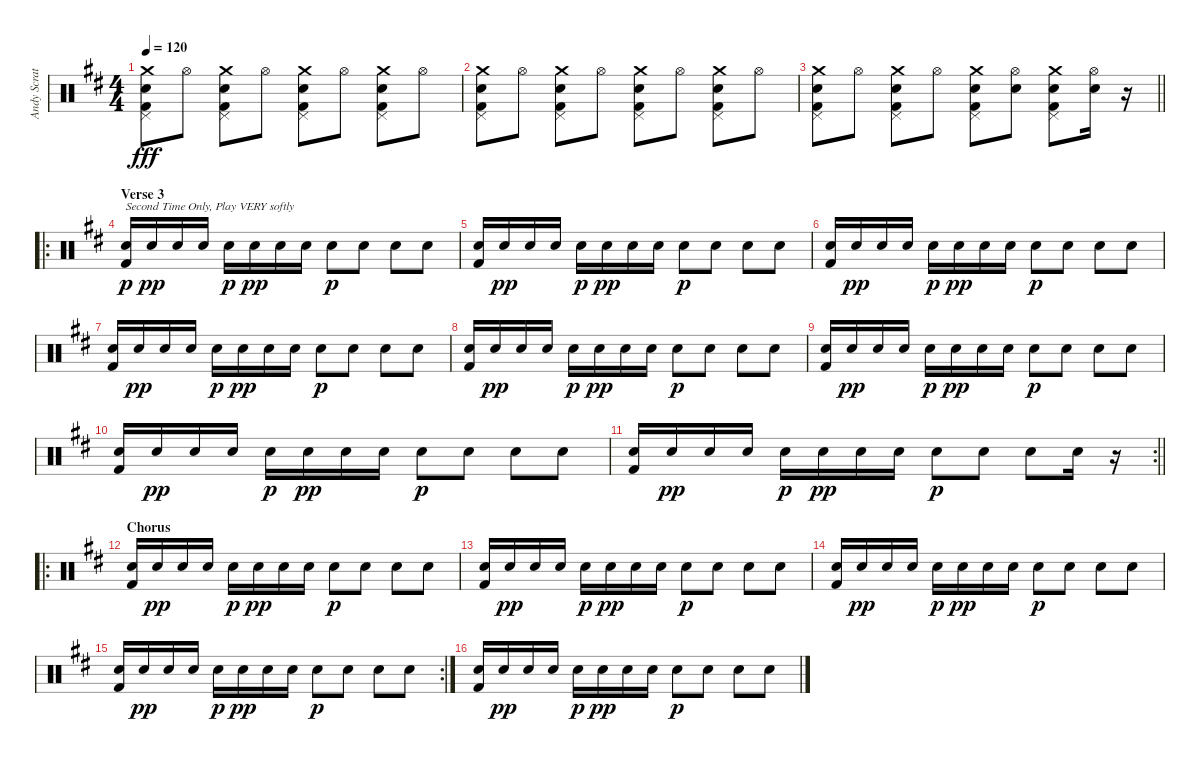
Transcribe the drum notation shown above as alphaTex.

\track ("Andy Scratchen (Drums)" "Andy Scrat") {instrument percussion}
\staff {score}
\articulation defaults
\ts (4 4)
\tempo 120
\clef neutral
\ks bminor
("Crash medium (hit)" "Pedal Hi-Hat (hit)" "Snare (hit) 2" "Kick (hit) 2").8{dy fff} "Hi-Hat (open)".8 ("Crash medium (hit)" "Pedal Hi-Hat (hit)" "Snare (hit) 2" "Kick (hit) 2").8 "Hi-Hat (open)".8 ("Crash medium (hit)" "Pedal Hi-Hat (hit)" "Snare (hit) 2" "Kick (hit) 2").8 "Hi-Hat (open)".8 ("Crash medium (hit)" "Pedal Hi-Hat (hit)" "Snare (hit) 2" "Kick (hit) 2").8 "Hi-Hat (open)".8 |
("Crash medium (hit)" "Pedal Hi-Hat (hit)" "Snare (hit) 2" "Kick (hit) 2").8 "Hi-Hat (open)".8 ("Crash medium (hit)" "Pedal Hi-Hat (hit)" "Snare (hit) 2" "Kick (hit) 2").8 "Hi-Hat (open)".8 ("Crash medium (hit)" "Pedal Hi-Hat (hit)" "Snare (hit) 2" "Kick (hit) 2").8 "Hi-Hat (open)".8 ("Crash medium (hit)" "Pedal Hi-Hat (hit)" "Snare (hit) 2" "Kick (hit) 2").8 "Hi-Hat (open)".8 |
\barLineRight lightlight
("Crash medium (hit)" "Pedal Hi-Hat (hit)" "Snare (hit) 2" "Kick (hit) 2").8 "Hi-Hat (open)".8 ("Crash medium (hit)" "Pedal Hi-Hat (hit)" "Snare (hit) 2" "Kick (hit) 2").8 "Hi-Hat (open)".8 ("Crash medium (hit)" "Pedal Hi-Hat (hit)" "Snare (hit) 2" "Kick (hit) 2").8 ("Hi-Hat (open)" "Snare (hit) 2").8 ("Crash medium (hit)" "Pedal Hi-Hat (hit)" "Snare (hit) 2" "Kick (hit) 2").8 ("Hi-Hat (open)" "Snare (hit) 2").16 r.16{volume 0} |
\ro
\section ("" "Verse 3")
("Snare (hit) 2" "Kick (hit) 2").16{txt "Second Time Only, Play VERY softly" dy p} "Snare (hit) 2".16{dy pp} "Snare (hit) 2".16 "Snare (hit) 2".16 "Snare (hit) 2".16{dy p} "Snare (hit) 2".16{dy pp} "Snare (hit) 2".16 "Snare (hit) 2".16 "Snare (hit) 2".8{dy p} "Snare (hit) 2".8 "Snare (hit) 2".8 "Snare (hit) 2".8 |
("Snare (hit) 2" "Kick (hit) 2").16 "Snare (hit) 2".16{dy pp} "Snare (hit) 2".16 "Snare (hit) 2".16 "Snare (hit) 2".16{dy p} "Snare (hit) 2".16{dy pp} "Snare (hit) 2".16 "Snare (hit) 2".16 "Snare (hit) 2".8{dy p} "Snare (hit) 2".8 "Snare (hit) 2".8 "Snare (hit) 2".8 |
("Snare (hit) 2" "Kick (hit) 2").16 "Snare (hit) 2".16{dy pp} "Snare (hit) 2".16 "Snare (hit) 2".16 "Snare (hit) 2".16{dy p} "Snare (hit) 2".16{dy pp} "Snare (hit) 2".16 "Snare (hit) 2".16 "Snare (hit) 2".8{dy p} "Snare (hit) 2".8 "Snare (hit) 2".8 "Snare (hit) 2".8 |
("Snare (hit) 2" "Kick (hit) 2").16 "Snare (hit) 2".16{dy pp} "Snare (hit) 2".16 "Snare (hit) 2".16 "Snare (hit) 2".16{dy p} "Snare (hit) 2".16{dy pp} "Snare (hit) 2".16 "Snare (hit) 2".16 "Snare (hit) 2".8{dy p} "Snare (hit) 2".8 "Snare (hit) 2".8 "Snare (hit) 2".8 |
("Snare (hit) 2" "Kick (hit) 2").16 "Snare (hit) 2".16{dy pp} "Snare (hit) 2".16 "Snare (hit) 2".16 "Snare (hit) 2".16{dy p} "Snare (hit) 2".16{dy pp} "Snare (hit) 2".16 "Snare (hit) 2".16 "Snare (hit) 2".8{dy p} "Snare (hit) 2".8 "Snare (hit) 2".8 "Snare (hit) 2".8 |
("Snare (hit) 2" "Kick (hit) 2").16 "Snare (hit) 2".16{dy pp} "Snare (hit) 2".16 "Snare (hit) 2".16 "Snare (hit) 2".16{dy p} "Snare (hit) 2".16{dy pp} "Snare (hit) 2".16 "Snare (hit) 2".16 "Snare (hit) 2".8{dy p} "Snare (hit) 2".8 "Snare (hit) 2".8 "Snare (hit) 2".8 |
("Snare (hit) 2" "Kick (hit) 2").16 "Snare (hit) 2".16{dy pp} "Snare (hit) 2".16 "Snare (hit) 2".16 "Snare (hit) 2".16{dy p} "Snare (hit) 2".16{dy pp} "Snare (hit) 2".16 "Snare (hit) 2".16 "Snare (hit) 2".8{dy p} "Snare (hit) 2".8 "Snare (hit) 2".8 "Snare (hit) 2".8 |
\rc 2
\barLineRight lightlight
("Snare (hit) 2" "Kick (hit) 2").16 "Snare (hit) 2".16{dy pp} "Snare (hit) 2".16 "Snare (hit) 2".16 "Snare (hit) 2".16{dy p} "Snare (hit) 2".16{dy pp} "Snare (hit) 2".16 "Snare (hit) 2".16 "Snare (hit) 2".8{dy p} "Snare (hit) 2".8 "Snare (hit) 2".8 "Snare (hit) 2".16 r.16{volume 10} |
\ro
\section ("" "Chorus")
("Snare (hit) 2" "Kick (hit) 2").16 "Snare (hit) 2".16{dy pp} "Snare (hit) 2".16 "Snare (hit) 2".16 "Snare (hit) 2".16{dy p} "Snare (hit) 2".16{dy pp} "Snare (hit) 2".16 "Snare (hit) 2".16 "Snare (hit) 2".8{dy p} "Snare (hit) 2".8 "Snare (hit) 2".8 "Snare (hit) 2".8 |
("Snare (hit) 2" "Kick (hit) 2").16 "Snare (hit) 2".16{dy pp} "Snare (hit) 2".16 "Snare (hit) 2".16 "Snare (hit) 2".16{dy p} "Snare (hit) 2".16{dy pp} "Snare (hit) 2".16 "Snare (hit) 2".16 "Snare (hit) 2".8{dy p} "Snare (hit) 2".8 "Snare (hit) 2".8 "Snare (hit) 2".8 |
("Snare (hit) 2" "Kick (hit) 2").16 "Snare (hit) 2".16{dy pp} "Snare (hit) 2".16 "Snare (hit) 2".16 "Snare (hit) 2".16{dy p} "Snare (hit) 2".16{dy pp} "Snare (hit) 2".16 "Snare (hit) 2".16 "Snare (hit) 2".8{dy p} "Snare (hit) 2".8 "Snare (hit) 2".8 "Snare (hit) 2".8 |
\rc 2
("Snare (hit) 2" "Kick (hit) 2").16 "Snare (hit) 2".16{dy pp} "Snare (hit) 2".16 "Snare (hit) 2".16 "Snare (hit) 2".16{dy p} "Snare (hit) 2".16{dy pp} "Snare (hit) 2".16 "Snare (hit) 2".16 "Snare (hit) 2".8{dy p} "Snare (hit) 2".8 "Snare (hit) 2".8 "Snare (hit) 2".8 |
("Snare (hit) 2" "Kick (hit) 2").16 "Snare (hit) 2".16{dy pp} "Snare (hit) 2".16 "Snare (hit) 2".16 "Snare (hit) 2".16{dy p} "Snare (hit) 2".16{dy pp} "Snare (hit) 2".16 "Snare (hit) 2".16 "Snare (hit) 2".8{dy p} "Snare (hit) 2".8 "Snare (hit) 2".8 "Snare (hit) 2".8
